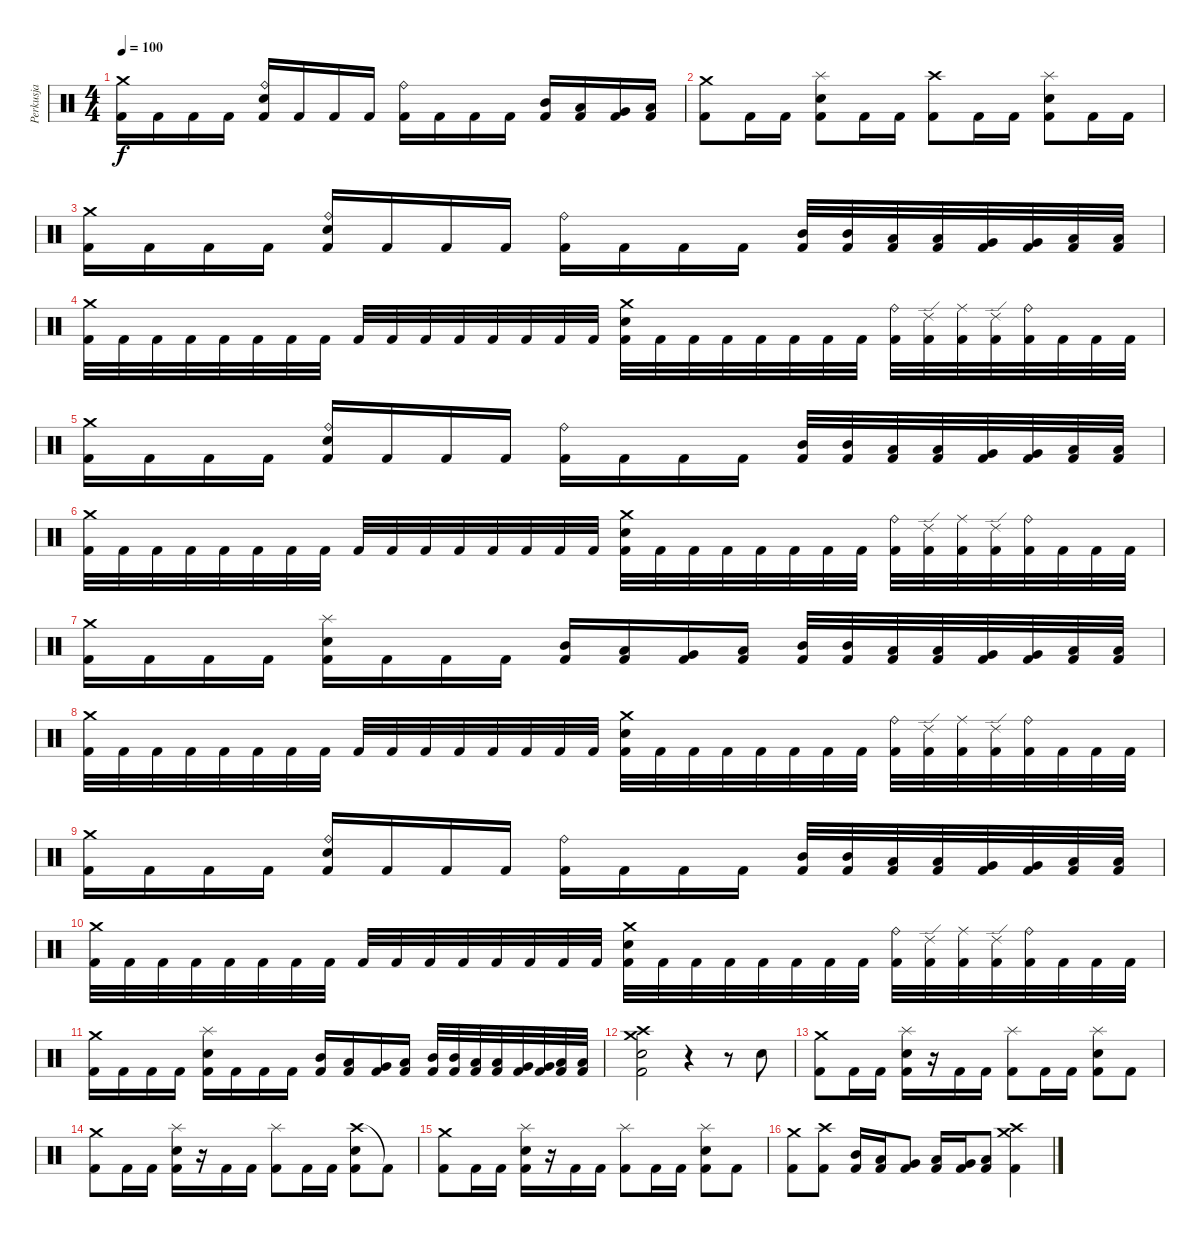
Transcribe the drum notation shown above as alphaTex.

\track ("Perkusja" "Perkusja") {instrument percussion}
\staff {score}
\articulation defaults
\ts (4 4)
\tempo 100
\clef neutral
\ks c
("Crash medium (hit)" "Kick (hit) 2").16{dy f} "Kick (hit) 2".16 "Kick (hit) 2".16 "Kick (hit) 2".16 ("Ride (bell)" "Electric Snare (hit)" "Kick (hit) 2").16 "Kick (hit) 2".16 "Kick (hit) 2".16 "Kick (hit) 2".16 ("Ride (bell)" "Kick (hit) 2").16 "Kick (hit) 2".16 "Kick (hit) 2".16 "Kick (hit) 2".16 ("Mid Tom (hit)" "Kick (hit) 2").16 ("Low Tom (hit)" "Kick (hit) 2").16 ("Very Low Tom (hit)" "Kick (hit) 2").16 ("Low Floor Tom (hit)" "Kick (hit) 2").16 |
("Crash medium (hit)" "Kick (hit) 2").8 "Kick (hit) 2".16 "Kick (hit) 2".16 ("Splash (hit)" "Electric Snare (hit)" "Kick (hit) 2").8 "Kick (hit) 2".16 "Kick (hit) 2".16 ("Crash high (hit)" "Kick (hit) 2").8 "Kick (hit) 2".16 "Kick (hit) 2".16 ("Splash (hit)" "Electric Snare (hit)" "Kick (hit) 2").8 "Kick (hit) 2".16 "Kick (hit) 2".16 |
("Crash medium (hit)" "Kick (hit) 2").16 "Kick (hit) 2".16 "Kick (hit) 2".16 "Kick (hit) 2".16 ("Ride (bell)" "Electric Snare (hit)" "Kick (hit) 2").16 "Kick (hit) 2".16 "Kick (hit) 2".16 "Kick (hit) 2".16 ("Ride (bell)" "Kick (hit) 2").16 "Kick (hit) 2".16 "Kick (hit) 2".16 "Kick (hit) 2".16 ("Mid Tom (hit)" "Kick (hit) 2").32 ("Mid Tom (hit)" "Kick (hit) 2").32 ("Low Tom (hit)" "Kick (hit) 2").32 ("Low Tom (hit)" "Kick (hit) 2").32 ("Very Low Tom (hit)" "Kick (hit) 2").32 ("Very Low Tom (hit)" "Kick (hit) 2").32 ("Low Floor Tom (hit)" "Kick (hit) 2").32 ("Low Floor Tom (hit)" "Kick (hit) 2").32 |
("Crash medium (hit)" "Kick (hit) 2").32 "Kick (hit) 2".32 "Kick (hit) 2".32 "Kick (hit) 2".32 "Kick (hit) 2".32 "Kick (hit) 2".32 "Kick (hit) 2".32 "Kick (hit) 2".32 "Kick (hit) 2".32 "Kick (hit) 2".32 "Kick (hit) 2".32 "Kick (hit) 2".32 "Kick (hit) 2".32 "Kick (hit) 2".32 "Kick (hit) 2".32 "Kick (hit) 2".32 ("Crash medium (hit)" "Electric Snare (hit)" "Kick (hit) 2").32 "Kick (hit) 2".32 "Kick (hit) 2".32 "Kick (hit) 2".32 "Kick (hit) 2".32 "Kick (hit) 2".32 "Kick (hit) 2".32 "Kick (hit) 2".32 ("Ride (bell)" "Kick (hit) 2").32 ("Ride (edge) 2" "Kick (hit) 2").32 ("Ride (middle)" "Kick (hit) 2").32 ("Ride (edge) 2" "Kick (hit) 2").32 ("Ride (bell)" "Kick (hit) 2").32 "Kick (hit) 2".32 "Kick (hit) 2".32 "Kick (hit) 2".32 |
("Crash medium (hit)" "Kick (hit) 2").16 "Kick (hit) 2".16 "Kick (hit) 2".16 "Kick (hit) 2".16 ("Ride (bell)" "Electric Snare (hit)" "Kick (hit) 2").16 "Kick (hit) 2".16 "Kick (hit) 2".16 "Kick (hit) 2".16 ("Ride (bell)" "Kick (hit) 2").16 "Kick (hit) 2".16 "Kick (hit) 2".16 "Kick (hit) 2".16 ("Mid Tom (hit)" "Kick (hit) 2").32 ("Mid Tom (hit)" "Kick (hit) 2").32 ("Low Tom (hit)" "Kick (hit) 2").32 ("Low Tom (hit)" "Kick (hit) 2").32 ("Very Low Tom (hit)" "Kick (hit) 2").32 ("Very Low Tom (hit)" "Kick (hit) 2").32 ("Low Floor Tom (hit)" "Kick (hit) 2").32 ("Low Floor Tom (hit)" "Kick (hit) 2").32 |
("Crash medium (hit)" "Kick (hit) 2").32 "Kick (hit) 2".32 "Kick (hit) 2".32 "Kick (hit) 2".32 "Kick (hit) 2".32 "Kick (hit) 2".32 "Kick (hit) 2".32 "Kick (hit) 2".32 "Kick (hit) 2".32 "Kick (hit) 2".32 "Kick (hit) 2".32 "Kick (hit) 2".32 "Kick (hit) 2".32 "Kick (hit) 2".32 "Kick (hit) 2".32 "Kick (hit) 2".32 ("Crash medium (hit)" "Electric Snare (hit)" "Kick (hit) 2").32 "Kick (hit) 2".32 "Kick (hit) 2".32 "Kick (hit) 2".32 "Kick (hit) 2".32 "Kick (hit) 2".32 "Kick (hit) 2".32 "Kick (hit) 2".32 ("Ride (bell)" "Kick (hit) 2").32 ("Ride (edge) 2" "Kick (hit) 2").32 ("Ride (middle)" "Kick (hit) 2").32 ("Ride (edge) 2" "Kick (hit) 2").32 ("Ride (bell)" "Kick (hit) 2").32 "Kick (hit) 2".32 "Kick (hit) 2".32 "Kick (hit) 2".32 |
("Crash medium (hit)" "Kick (hit) 2").16 "Kick (hit) 2".16 "Kick (hit) 2".16 "Kick (hit) 2".16 ("Splash (hit)" "Electric Snare (hit)" "Kick (hit) 2").16 "Kick (hit) 2".16 "Kick (hit) 2".16 "Kick (hit) 2".16 ("Mid Tom (hit)" "Kick (hit) 2").16 ("Low Tom (hit)" "Kick (hit) 2").16 ("Very Low Tom (hit)" "Kick (hit) 2").16 ("Low Floor Tom (hit)" "Kick (hit) 2").16 ("Mid Tom (hit)" "Kick (hit) 2").32 ("Mid Tom (hit)" "Kick (hit) 2").32 ("Low Tom (hit)" "Kick (hit) 2").32 ("Low Tom (hit)" "Kick (hit) 2").32 ("Very Low Tom (hit)" "Kick (hit) 2").32 ("Very Low Tom (hit)" "Kick (hit) 2").32 ("Low Floor Tom (hit)" "Kick (hit) 2").32 ("Low Floor Tom (hit)" "Kick (hit) 2").32 |
("Crash medium (hit)" "Kick (hit) 2").32 "Kick (hit) 2".32 "Kick (hit) 2".32 "Kick (hit) 2".32 "Kick (hit) 2".32 "Kick (hit) 2".32 "Kick (hit) 2".32 "Kick (hit) 2".32 "Kick (hit) 2".32 "Kick (hit) 2".32 "Kick (hit) 2".32 "Kick (hit) 2".32 "Kick (hit) 2".32 "Kick (hit) 2".32 "Kick (hit) 2".32 "Kick (hit) 2".32 ("Crash medium (hit)" "Electric Snare (hit)" "Kick (hit) 2").32 "Kick (hit) 2".32 "Kick (hit) 2".32 "Kick (hit) 2".32 "Kick (hit) 2".32 "Kick (hit) 2".32 "Kick (hit) 2".32 "Kick (hit) 2".32 ("Ride (bell)" "Kick (hit) 2").32 ("Ride (edge) 2" "Kick (hit) 2").32 ("Ride (middle)" "Kick (hit) 2").32 ("Ride (edge) 2" "Kick (hit) 2").32 ("Ride (bell)" "Kick (hit) 2").32 "Kick (hit) 2".32 "Kick (hit) 2".32 "Kick (hit) 2".32 |
("Crash medium (hit)" "Kick (hit) 2").16 "Kick (hit) 2".16 "Kick (hit) 2".16 "Kick (hit) 2".16 ("Ride (bell)" "Electric Snare (hit)" "Kick (hit) 2").16 "Kick (hit) 2".16 "Kick (hit) 2".16 "Kick (hit) 2".16 ("Ride (bell)" "Kick (hit) 2").16 "Kick (hit) 2".16 "Kick (hit) 2".16 "Kick (hit) 2".16 ("Mid Tom (hit)" "Kick (hit) 2").32 ("Mid Tom (hit)" "Kick (hit) 2").32 ("Low Tom (hit)" "Kick (hit) 2").32 ("Low Tom (hit)" "Kick (hit) 2").32 ("Very Low Tom (hit)" "Kick (hit) 2").32 ("Very Low Tom (hit)" "Kick (hit) 2").32 ("Low Floor Tom (hit)" "Kick (hit) 2").32 ("Low Floor Tom (hit)" "Kick (hit) 2").32 |
("Crash medium (hit)" "Kick (hit) 2").32 "Kick (hit) 2".32 "Kick (hit) 2".32 "Kick (hit) 2".32 "Kick (hit) 2".32 "Kick (hit) 2".32 "Kick (hit) 2".32 "Kick (hit) 2".32 "Kick (hit) 2".32 "Kick (hit) 2".32 "Kick (hit) 2".32 "Kick (hit) 2".32 "Kick (hit) 2".32 "Kick (hit) 2".32 "Kick (hit) 2".32 "Kick (hit) 2".32 ("Crash medium (hit)" "Electric Snare (hit)" "Kick (hit) 2").32 "Kick (hit) 2".32 "Kick (hit) 2".32 "Kick (hit) 2".32 "Kick (hit) 2".32 "Kick (hit) 2".32 "Kick (hit) 2".32 "Kick (hit) 2".32 ("Ride (bell)" "Kick (hit) 2").32 ("Ride (edge) 2" "Kick (hit) 2").32 ("Ride (middle)" "Kick (hit) 2").32 ("Ride (edge) 2" "Kick (hit) 2").32 ("Ride (bell)" "Kick (hit) 2").32 "Kick (hit) 2".32 "Kick (hit) 2".32 "Kick (hit) 2".32 |
("Crash medium (hit)" "Kick (hit) 2").16 "Kick (hit) 2".16 "Kick (hit) 2".16 "Kick (hit) 2".16 ("Splash (hit)" "Electric Snare (hit)" "Kick (hit) 2").16 "Kick (hit) 2".16 "Kick (hit) 2".16 "Kick (hit) 2".16 ("Mid Tom (hit)" "Kick (hit) 2").16 ("Low Tom (hit)" "Kick (hit) 2").16 ("Very Low Tom (hit)" "Kick (hit) 2").16 ("Low Floor Tom (hit)" "Kick (hit) 2").16 ("Mid Tom (hit)" "Kick (hit) 2").32 ("Mid Tom (hit)" "Kick (hit) 2").32 ("Low Tom (hit)" "Kick (hit) 2").32 ("Low Tom (hit)" "Kick (hit) 2").32 ("Very Low Tom (hit)" "Kick (hit) 2").32 ("Very Low Tom (hit)" "Kick (hit) 2").32 ("Low Floor Tom (hit)" "Kick (hit) 2").32 ("Low Floor Tom (hit)" "Kick (hit) 2").32 |
("Snare (hit) 2" "Kick (hit) 2" "Crash high (hit)" "Crash medium (hit)").2 r.4 r.8 "Electric Snare (hit)".8 |
("Crash medium (hit)" "Kick (hit) 2").8 "Kick (hit) 2".16 "Kick (hit) 2".16 ("Splash (hit)" "Electric Snare (hit)" "Kick (hit) 2").16 r.16 "Kick (hit) 2".16 "Kick (hit) 2".16 ("Splash (hit)" "Kick (hit) 2").8 "Kick (hit) 2".16 "Kick (hit) 2".16 ("Splash (hit)" "Electric Snare (hit)" "Kick (hit) 2").8 "Kick (hit) 2".8 |
("Crash medium (hit)" "Kick (hit) 2").8 "Kick (hit) 2".16 "Kick (hit) 2".16 ("Splash (hit)" "Electric Snare (hit)" "Kick (hit) 2").16 r.16 "Kick (hit) 2".16 "Kick (hit) 2".16 ("Splash (hit)" "Kick (hit) 2").8 "Kick (hit) 2".16 "Kick (hit) 2".16 ("Crash high (hit)" "Electric Snare (hit)" "Kick (hit) 2").8 "Kick (hit) 2"{t}.8 |
("Crash medium (hit)" "Kick (hit) 2").8 "Kick (hit) 2".16 "Kick (hit) 2".16 ("Splash (hit)" "Electric Snare (hit)" "Kick (hit) 2").16 r.16 "Kick (hit) 2".16 "Kick (hit) 2".16 ("Splash (hit)" "Kick (hit) 2").8 "Kick (hit) 2".16 "Kick (hit) 2".16 ("Splash (hit)" "Electric Snare (hit)" "Kick (hit) 2").8 "Kick (hit) 2".8 |
("Crash medium (hit)" "Kick (hit) 2").8 ("Crash high (hit)" "Kick (hit) 2").8 ("Mid Tom (hit)" "Kick (hit) 2").16 ("Low Tom (hit)" "Kick (hit) 2").16 ("Very Low Tom (hit)" "Kick (hit) 2").8 ("Low Tom (hit)" "Kick (hit) 2").16 ("Very Low Tom (hit)" "Kick (hit) 2").16 ("Low Floor Tom (hit)" "Kick (hit) 2").8 ("Crash medium (hit)" "Crash high (hit)" "Kick (hit) 2").4
